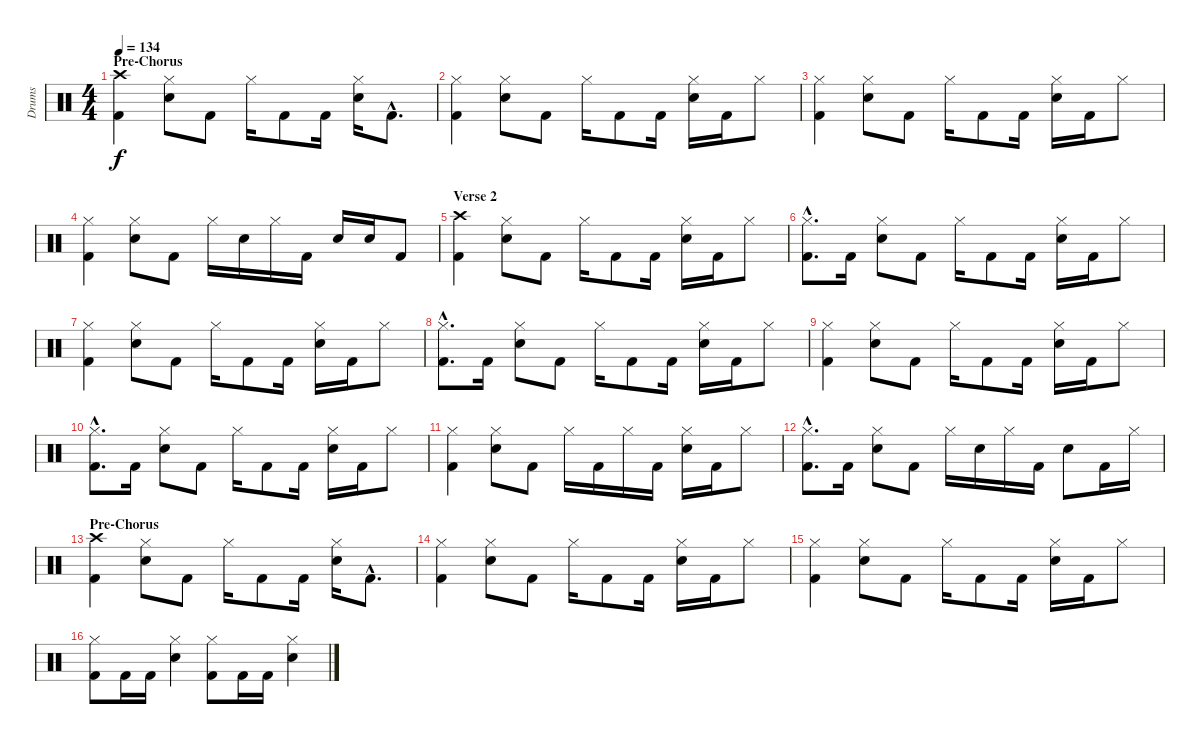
\track ("Drums" "Drums") {instrument percussion}
\staff {score}
\articulation defaults
\ts (4 4)
\section ("" "Pre-Chorus")
\tempo 134
\clef neutral
\ks c
("Crash high (hit)" "Kick (hit) 2").4{dy f} ("Hi-Hat (closed)" "Electric Snare (hit)").8 "Kick (hit) 2".8 "Hi-Hat (closed)".16 "Kick (hit) 2".8 "Kick (hit) 2".16 ("Hi-Hat (closed)" "Electric Snare (hit)").16 "Kick (hit) 2"{hac}.8{d} |
("Hi-Hat (closed)" "Kick (hit) 2").4 ("Hi-Hat (closed)" "Electric Snare (hit)").8 "Kick (hit) 2".8 "Hi-Hat (closed)".16 "Kick (hit) 2".8 "Kick (hit) 2".16 ("Hi-Hat (closed)" "Electric Snare (hit)").16 "Kick (hit) 2".16 "Hi-Hat (closed)".8 |
("Hi-Hat (closed)" "Kick (hit) 2").4 ("Hi-Hat (closed)" "Electric Snare (hit)").8 "Kick (hit) 2".8 "Hi-Hat (closed)".16 "Kick (hit) 2".8 "Kick (hit) 2".16 ("Hi-Hat (closed)" "Electric Snare (hit)").16 "Kick (hit) 2".16 "Hi-Hat (closed)".8 |
("Hi-Hat (closed)" "Kick (hit) 2").4 ("Hi-Hat (closed)" "Electric Snare (hit)").8 "Kick (hit) 2".8 "Hi-Hat (closed)".16 "Electric Snare (hit)".16 "Hi-Hat (closed)".16 "Kick (hit) 2".16 "Electric Snare (hit)".16 "Electric Snare (hit)".16 "Kick (hit) 2".8 |
\section ("" "Verse 2")
("Crash high (hit)" "Kick (hit) 2").4 ("Hi-Hat (closed)" "Electric Snare (hit)").8 "Kick (hit) 2".8 "Hi-Hat (closed)".16 "Kick (hit) 2".8 "Kick (hit) 2".16 ("Hi-Hat (closed)" "Electric Snare (hit)").16 "Kick (hit) 2".16 "Hi-Hat (closed)".8 |
("Hi-Hat (closed)"{hac} "Kick (hit) 2"{hac}).8{d} "Kick (hit) 2".16 ("Hi-Hat (closed)" "Electric Snare (hit)").8 "Kick (hit) 2".8 "Hi-Hat (closed)".16 "Kick (hit) 2".8 "Kick (hit) 2".16 ("Hi-Hat (closed)" "Electric Snare (hit)").16 "Kick (hit) 2".16 "Hi-Hat (closed)".8 |
("Hi-Hat (closed)" "Kick (hit) 2").4 ("Hi-Hat (closed)" "Electric Snare (hit)").8 "Kick (hit) 2".8 "Hi-Hat (closed)".16 "Kick (hit) 2".8 "Kick (hit) 2".16 ("Hi-Hat (closed)" "Electric Snare (hit)").16 "Kick (hit) 2".16 "Hi-Hat (closed)".8 |
("Hi-Hat (closed)"{hac} "Kick (hit) 2"{hac}).8{d} "Kick (hit) 2".16 ("Hi-Hat (closed)" "Electric Snare (hit)").8 "Kick (hit) 2".8 "Hi-Hat (closed)".16 "Kick (hit) 2".8 "Kick (hit) 2".16 ("Hi-Hat (closed)" "Electric Snare (hit)").16 "Kick (hit) 2".16 "Hi-Hat (closed)".8 |
("Hi-Hat (closed)" "Kick (hit) 2").4 ("Hi-Hat (closed)" "Electric Snare (hit)").8 "Kick (hit) 2".8 "Hi-Hat (closed)".16 "Kick (hit) 2".8 "Kick (hit) 2".16 ("Hi-Hat (closed)" "Electric Snare (hit)").16 "Kick (hit) 2".16 "Hi-Hat (closed)".8 |
("Hi-Hat (closed)"{hac} "Kick (hit) 2"{hac}).8{d} "Kick (hit) 2".16 ("Hi-Hat (closed)" "Electric Snare (hit)").8 "Kick (hit) 2".8 "Hi-Hat (closed)".16 "Kick (hit) 2".8 "Kick (hit) 2".16 ("Hi-Hat (closed)" "Electric Snare (hit)").16 "Kick (hit) 2".16 "Hi-Hat (closed)".8 |
("Hi-Hat (closed)" "Kick (hit) 2").4 ("Hi-Hat (closed)" "Electric Snare (hit)").8 "Kick (hit) 2".8 "Hi-Hat (closed)".16 "Kick (hit) 2".16 "Hi-Hat (closed)".16 "Kick (hit) 2".16 ("Hi-Hat (closed)" "Electric Snare (hit)").16 "Kick (hit) 2".16 "Hi-Hat (closed)".8 |
("Hi-Hat (closed)"{hac} "Kick (hit) 2"{hac}).8{d} "Kick (hit) 2".16 ("Hi-Hat (closed)" "Electric Snare (hit)").8 "Kick (hit) 2".8 "Hi-Hat (closed)".16 "Electric Snare (hit)".16 "Hi-Hat (closed)".16 "Kick (hit) 2".16 "Electric Snare (hit)".8 "Kick (hit) 2".16 "Hi-Hat (closed)".16 |
\section ("" "Pre-Chorus")
("Crash high (hit)" "Kick (hit) 2").4 ("Hi-Hat (closed)" "Electric Snare (hit)").8 "Kick (hit) 2".8 "Hi-Hat (closed)".16 "Kick (hit) 2".8 "Kick (hit) 2".16 ("Hi-Hat (closed)" "Electric Snare (hit)").16 "Kick (hit) 2"{hac}.8{d} |
("Hi-Hat (closed)" "Kick (hit) 2").4 ("Hi-Hat (closed)" "Electric Snare (hit)").8 "Kick (hit) 2".8 "Hi-Hat (closed)".16 "Kick (hit) 2".8 "Kick (hit) 2".16 ("Hi-Hat (closed)" "Electric Snare (hit)").16 "Kick (hit) 2".16 "Hi-Hat (closed)".8 |
("Hi-Hat (closed)" "Kick (hit) 2").4 ("Hi-Hat (closed)" "Electric Snare (hit)").8 "Kick (hit) 2".8 "Hi-Hat (closed)".16 "Kick (hit) 2".8 "Kick (hit) 2".16 ("Hi-Hat (closed)" "Electric Snare (hit)").16 "Kick (hit) 2".16 "Hi-Hat (closed)".8 |
("Hi-Hat (closed)" "Kick (hit) 2").8 "Kick (hit) 2".16 "Kick (hit) 2".16 ("Hi-Hat (closed)" "Electric Snare (hit)").4 ("Hi-Hat (closed)" "Kick (hit) 2").8 "Kick (hit) 2".16 "Kick (hit) 2".16 ("Hi-Hat (closed)" "Electric Snare (hit)").4
